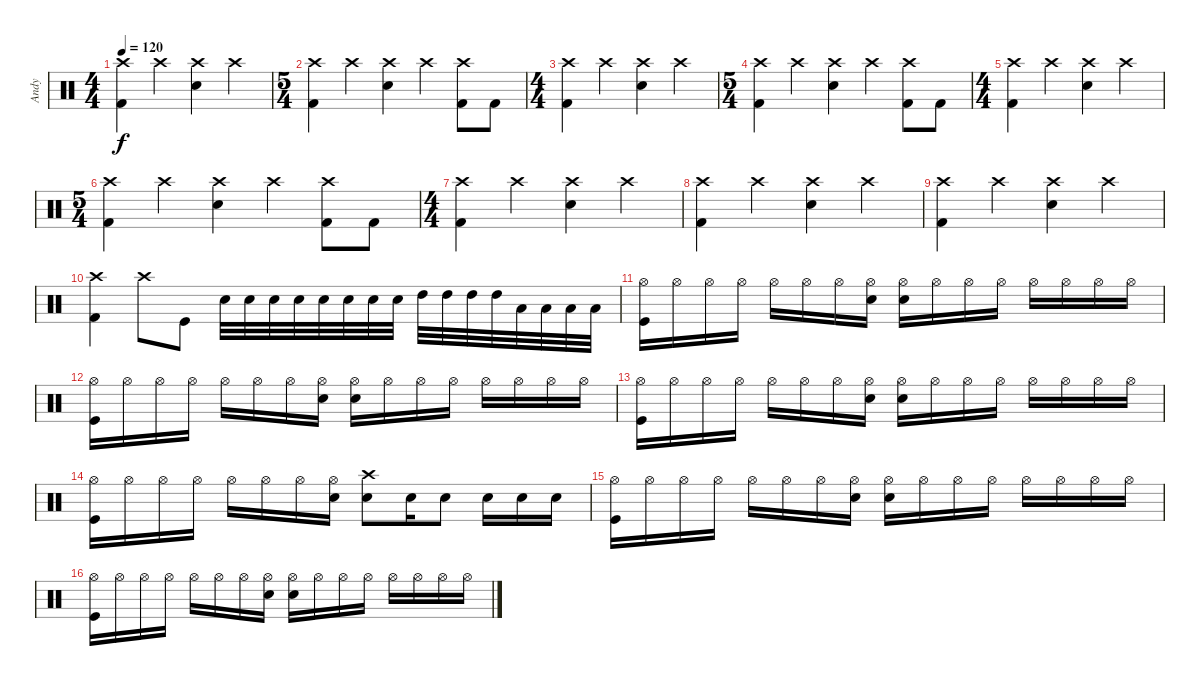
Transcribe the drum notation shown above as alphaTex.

\track ("Andy" "Andy") {instrument percussion}
\staff {score}
\articulation defaults
\ts (4 4)
\tempo 120
\clef neutral
\ks c
("Crash high (hit)" "Kick (hit) 2").4{dy f} "Crash high (hit)".4 ("Crash high (hit)" "Snare (hit) 2").4 "Crash high (hit)".4 |
\ts (5 4)
("Crash high (hit)" "Kick (hit) 2").4 "Crash high (hit)".4 ("Crash high (hit)" "Snare (hit) 2").4 "Crash high (hit)".4 ("Crash high (hit)" "Kick (hit) 2").8 "Kick (hit) 2".8 |
\ts (4 4)
("Crash high (hit)" "Kick (hit) 2").4 "Crash high (hit)".4 ("Crash high (hit)" "Snare (hit) 2").4 "Crash high (hit)".4 |
\ts (5 4)
("Crash high (hit)" "Kick (hit) 2").4 "Crash high (hit)".4 ("Crash high (hit)" "Snare (hit) 2").4 "Crash high (hit)".4 ("Crash high (hit)" "Kick (hit) 2").8 "Kick (hit) 2".8 |
\ts (4 4)
("Crash high (hit)" "Kick (hit) 2").4 "Crash high (hit)".4 ("Crash high (hit)" "Snare (hit) 2").4 "Crash high (hit)".4 |
\ts (5 4)
("Crash high (hit)" "Kick (hit) 2").4 "Crash high (hit)".4 ("Crash high (hit)" "Snare (hit) 2").4 "Crash high (hit)".4 ("Crash high (hit)" "Kick (hit) 2").8 "Kick (hit) 2".8 |
\ts (4 4)
("Crash high (hit)" "Kick (hit) 2").4 "Crash high (hit)".4 ("Crash high (hit)" "Snare (hit) 2").4 "Crash high (hit)".4 |
("Crash high (hit)" "Kick (hit) 2").4 "Crash high (hit)".4 ("Crash high (hit)" "Snare (hit) 2").4 "Crash high (hit)".4 |
("Crash high (hit)" "Kick (hit) 2").4 "Crash high (hit)".4 ("Crash high (hit)" "Snare (hit) 2").4 "Crash high (hit)".4 |
("Crash high (hit)" "Kick (hit) 2").4 "Crash high (hit)".8 "Kick (hit)".8 "Snare (hit) 2".32 "Snare (hit) 2".32 "Snare (hit) 2".32 "Snare (hit) 2".32 "Snare (hit) 2".32 "Snare (hit) 2".32 "Snare (hit) 2".32 "Snare (hit) 2".32 "High Tom (hit)".32 "High Tom (hit)".32 "High Tom (hit)".32 "High Tom (hit)".32 "Low Tom (hit)".32 "Low Tom (hit)".32 "Low Tom (hit)".32 "Low Tom (hit)".32 |
("Kick (hit)" "Hi-Hat (open)").16 "Hi-Hat (open)".16 "Hi-Hat (open)".16 "Hi-Hat (open)".16 "Hi-Hat (open)".16 "Hi-Hat (open)".16 "Hi-Hat (open)".16 ("Hi-Hat (open)" "Snare (hit) 2").16 ("Hi-Hat (open)" "Snare (hit) 2").16 "Hi-Hat (open)".16 "Hi-Hat (open)".16 "Hi-Hat (open)".16 "Hi-Hat (open)".16 "Hi-Hat (open)".16 "Hi-Hat (open)".16 "Hi-Hat (open)".16 |
("Kick (hit)" "Hi-Hat (open)").16 "Hi-Hat (open)".16 "Hi-Hat (open)".16 "Hi-Hat (open)".16 "Hi-Hat (open)".16 "Hi-Hat (open)".16 "Hi-Hat (open)".16 ("Hi-Hat (open)" "Snare (hit) 2").16 ("Hi-Hat (open)" "Snare (hit) 2").16 "Hi-Hat (open)".16 "Hi-Hat (open)".16 "Hi-Hat (open)".16 "Hi-Hat (open)".16 "Hi-Hat (open)".16 "Hi-Hat (open)".16 "Hi-Hat (open)".16 |
("Kick (hit)" "Hi-Hat (open)").16 "Hi-Hat (open)".16 "Hi-Hat (open)".16 "Hi-Hat (open)".16 "Hi-Hat (open)".16 "Hi-Hat (open)".16 "Hi-Hat (open)".16 ("Hi-Hat (open)" "Snare (hit) 2").16 ("Hi-Hat (open)" "Snare (hit) 2").16 "Hi-Hat (open)".16 "Hi-Hat (open)".16 "Hi-Hat (open)".16 "Hi-Hat (open)".16 "Hi-Hat (open)".16 "Hi-Hat (open)".16 "Hi-Hat (open)".16 |
("Kick (hit)" "Hi-Hat (open)").16 "Hi-Hat (open)".16 "Hi-Hat (open)".16 "Hi-Hat (open)".16 "Hi-Hat (open)".16 "Hi-Hat (open)".16 "Hi-Hat (open)".16 ("Hi-Hat (open)" "Snare (hit) 2").16 ("Snare (hit) 2" "Crash high (hit)").8 "Snare (hit) 2".16 "Snare (hit) 2".8 "Snare (hit) 2".16 "Snare (hit) 2".16 "Snare (hit) 2".16 |
("Kick (hit)" "Hi-Hat (open)").16 "Hi-Hat (open)".16 "Hi-Hat (open)".16 "Hi-Hat (open)".16 "Hi-Hat (open)".16 "Hi-Hat (open)".16 "Hi-Hat (open)".16 ("Hi-Hat (open)" "Snare (hit) 2").16 ("Hi-Hat (open)" "Snare (hit) 2").16 "Hi-Hat (open)".16 "Hi-Hat (open)".16 "Hi-Hat (open)".16 "Hi-Hat (open)".16 "Hi-Hat (open)".16 "Hi-Hat (open)".16 "Hi-Hat (open)".16 |
("Kick (hit)" "Hi-Hat (open)").16 "Hi-Hat (open)".16 "Hi-Hat (open)".16 "Hi-Hat (open)".16 "Hi-Hat (open)".16 "Hi-Hat (open)".16 "Hi-Hat (open)".16 ("Hi-Hat (open)" "Snare (hit) 2").16 ("Hi-Hat (open)" "Snare (hit) 2").16 "Hi-Hat (open)".16 "Hi-Hat (open)".16 "Hi-Hat (open)".16 "Hi-Hat (open)".16 "Hi-Hat (open)".16 "Hi-Hat (open)".16 "Hi-Hat (open)".16
